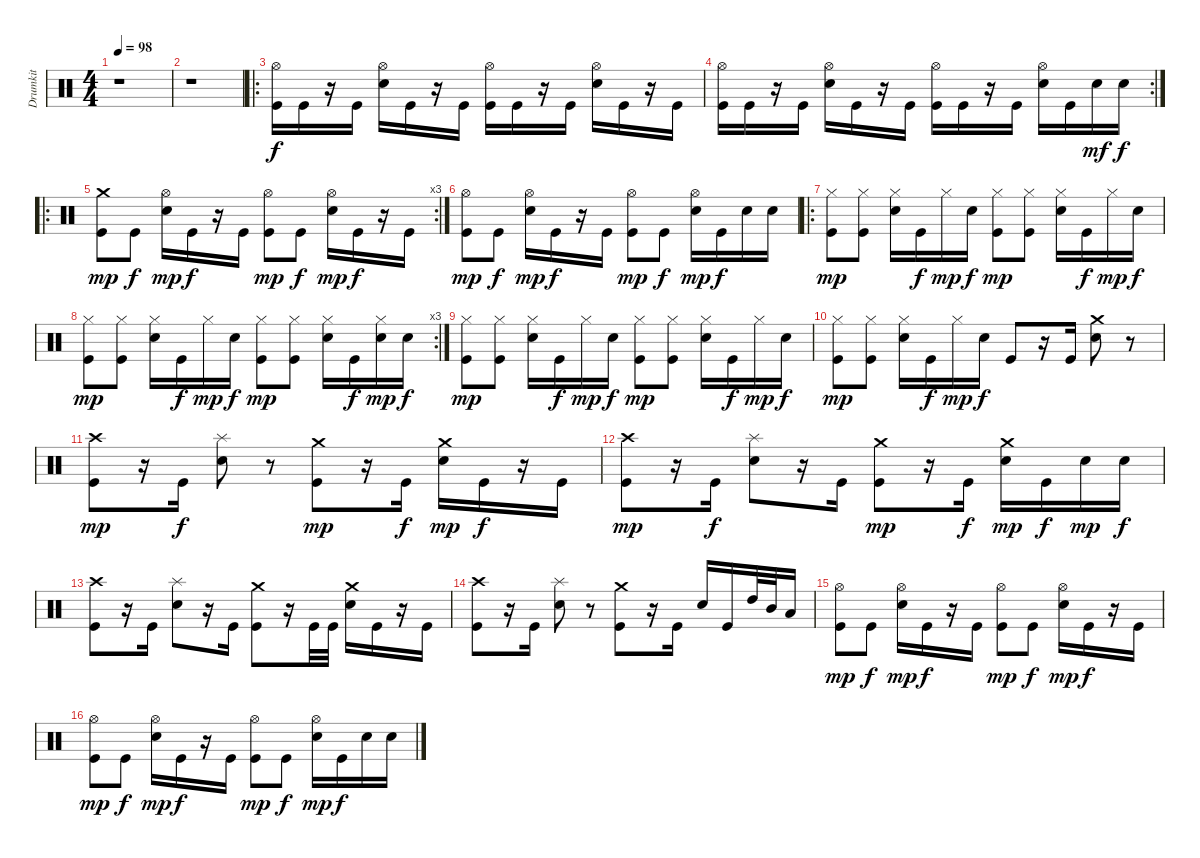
\track ("Drumkit" "Drumkit") {instrument percussion}
\staff {score}
\articulation defaults
\ts (4 4)
\tempo 98
\clef neutral
\ks c
r.1{dy f} |
r.1 |
\ro
("Hi-Hat (open)" "Kick (hit)").16 "Kick (hit)".16 r.16 "Kick (hit)".16 ("Hi-Hat (open)" "Snare (hit) 2").16 "Kick (hit)".16 r.16 "Kick (hit)".16 ("Hi-Hat (open)" "Kick (hit)").16 "Kick (hit)".16 r.16 "Kick (hit)".16 ("Hi-Hat (open)" "Snare (hit) 2").16 "Kick (hit)".16 r.16 "Kick (hit)".16 |
\rc 2
("Hi-Hat (open)" "Kick (hit)").16 "Kick (hit)".16 r.16 "Kick (hit)".16 ("Hi-Hat (open)" "Snare (hit) 2").16 "Kick (hit)".16 r.16 "Kick (hit)".16 ("Hi-Hat (open)" "Kick (hit)").16 "Kick (hit)".16 r.16 "Kick (hit)".16 ("Hi-Hat (open)" "Snare (hit) 2").16 "Kick (hit)".16 "Snare (hit) 2".16{dy mf} "Snare (hit) 2".16{dy f} |
\ro
\rc 3
("Crash medium (hit)" "Kick (hit)").8{dy mp} "Kick (hit)".8{dy f} ("Hi-Hat (open)" "Snare (hit) 2").16{dy mp} "Kick (hit)".16{dy f} r.16 "Kick (hit)".16 ("Hi-Hat (open)" "Kick (hit)").8{dy mp} "Kick (hit)".8{dy f} ("Hi-Hat (open)" "Snare (hit) 2").16{dy mp} "Kick (hit)".16{dy f} r.16 "Kick (hit)".16 |
("Hi-Hat (open)" "Kick (hit)").8{dy mp} "Kick (hit)".8{dy f} ("Hi-Hat (open)" "Snare (hit) 2").16{dy mp} "Kick (hit)".16{dy f} r.16 "Kick (hit)".16 ("Hi-Hat (open)" "Kick (hit)").8{dy mp} "Kick (hit)".8{dy f} ("Hi-Hat (open)" "Snare (hit) 2").16{dy mp} "Kick (hit)".16{dy f} "Snare (hit) 2".16 "Snare (hit) 2".16 |
\ro
("Hi-Hat (closed)" "Kick (hit)").8{dy mp} ("Hi-Hat (closed)" "Kick (hit)").8 ("Hi-Hat (closed)" "Snare (hit) 2").16 "Kick (hit)".16{dy f} "Hi-Hat (closed)".16{dy mp} "Snare (hit) 2".16{dy f} ("Hi-Hat (closed)" "Kick (hit)").8{dy mp} ("Hi-Hat (closed)" "Kick (hit)").8 ("Hi-Hat (closed)" "Snare (hit) 2").16 "Kick (hit)".16{dy f} "Hi-Hat (closed)".16{dy mp} "Snare (hit) 2".16{dy f} |
\rc 3
("Hi-Hat (closed)" "Kick (hit)").8{dy mp} ("Hi-Hat (closed)" "Kick (hit)").8 ("Hi-Hat (closed)" "Snare (hit) 2").16 "Kick (hit)".16{dy f} "Hi-Hat (closed)".16{dy mp} "Snare (hit) 2".16{dy f} ("Hi-Hat (closed)" "Kick (hit)").8{dy mp} ("Hi-Hat (closed)" "Kick (hit)").8 ("Hi-Hat (closed)" "Snare (hit) 2").16 "Kick (hit)".16{dy f} ("Hi-Hat (closed)" "Snare (hit) 2").16{dy mp} "Snare (hit) 2".16{dy f} |
("Hi-Hat (closed)" "Kick (hit)").8{dy mp} ("Hi-Hat (closed)" "Kick (hit)").8 ("Hi-Hat (closed)" "Snare (hit) 2").16 "Kick (hit)".16{dy f} "Hi-Hat (closed)".16{dy mp} "Snare (hit) 2".16{dy f} ("Hi-Hat (closed)" "Kick (hit)").8{dy mp} ("Hi-Hat (closed)" "Kick (hit)").8 ("Hi-Hat (closed)" "Snare (hit) 2").16 "Kick (hit)".16{dy f} "Hi-Hat (closed)".16{dy mp} "Snare (hit) 2".16{dy f} |
("Hi-Hat (closed)" "Kick (hit)").8{dy mp} ("Hi-Hat (closed)" "Kick (hit)").8 ("Hi-Hat (closed)" "Snare (hit) 2").16 "Kick (hit)".16{dy f} "Hi-Hat (closed)".16{dy mp} "Snare (hit) 2".16{dy f} "Kick (hit)".8 r.16 "Kick (hit)".16 ("Crash medium (hit)" "Snare (hit) 2").8 r.8 |
("Crash high (hit)" "Kick (hit)").8{dy mp} r.16 "Kick (hit)".16{dy f} ("Splash (hit)" "Snare (hit) 2").8 r.8 ("Crash medium (hit)" "Kick (hit)").8{dy mp} r.16 "Kick (hit)".16{dy f} ("Crash medium (hit)" "Snare (hit) 2").16{dy mp} "Kick (hit)".16{dy f} r.16 "Kick (hit)".16 |
("Crash high (hit)" "Kick (hit)").8{dy mp} r.16 "Kick (hit)".16{dy f} ("Splash (hit)" "Snare (hit) 2").8 r.16 "Kick (hit)".16 ("Crash medium (hit)" "Kick (hit)").8{dy mp} r.16 "Kick (hit)".16{dy f} ("Crash medium (hit)" "Snare (hit) 2").16{dy mp} "Kick (hit)".16{dy f} "Snare (hit) 2".16{dy mp} "Snare (hit) 2".16{dy f} |
("Crash high (hit)" "Kick (hit)").8 r.16 "Kick (hit)".16 ("Splash (hit)" "Snare (hit) 2").8 r.16 "Kick (hit)".16 ("Crash medium (hit)" "Kick (hit)").8 r.16 "Kick (hit)".32 "Kick (hit)".32 ("Crash medium (hit)" "Snare (hit) 2").16 "Kick (hit)".16 r.16 "Kick (hit)".16 |
("Crash high (hit)" "Kick (hit)").8 r.16 "Kick (hit)".16 ("Splash (hit)" "Snare (hit) 2").8 r.8 ("Crash medium (hit)" "Kick (hit)").8 r.16 "Kick (hit)".16 "Snare (hit) 2".16 "Kick (hit)".16 "High Tom (hit)".32 "Mid Tom (hit)".32 "Low Tom (hit)".16 |
("Hi-Hat (open)" "Kick (hit)").8{dy mp} "Kick (hit)".8{dy f} ("Hi-Hat (open)" "Snare (hit) 2").16{dy mp} "Kick (hit)".16{dy f} r.16 "Kick (hit)".16 ("Hi-Hat (open)" "Kick (hit)").8{dy mp} "Kick (hit)".8{dy f} ("Hi-Hat (open)" "Snare (hit) 2").16{dy mp} "Kick (hit)".16{dy f} r.16 "Kick (hit)".16 |
("Hi-Hat (open)" "Kick (hit)").8{dy mp} "Kick (hit)".8{dy f} ("Hi-Hat (open)" "Snare (hit) 2").16{dy mp} "Kick (hit)".16{dy f} r.16 "Kick (hit)".16 ("Hi-Hat (open)" "Kick (hit)").8{dy mp} "Kick (hit)".8{dy f} ("Hi-Hat (open)" "Snare (hit) 2").16{dy mp} "Kick (hit)".16{dy f} "Snare (hit) 2".16 "Snare (hit) 2".16
